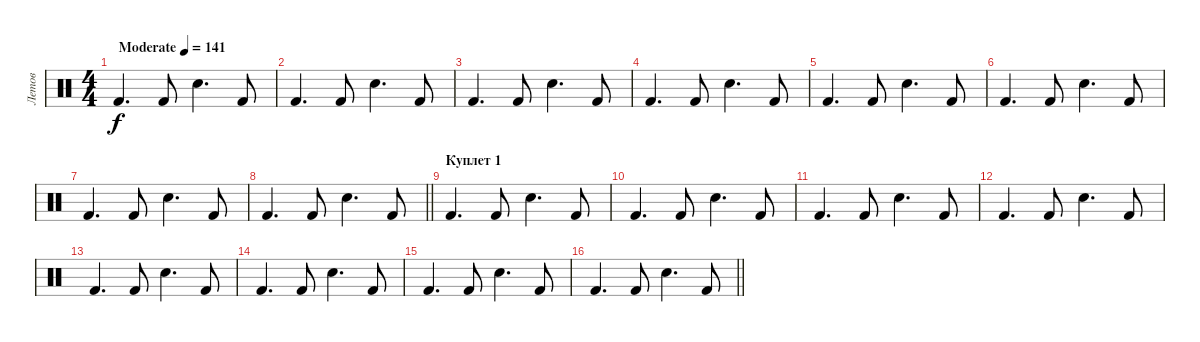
\track ("Летов" "Летов") {instrument percussion}
\staff {score}
\articulation defaults
\ts (4 4)
\tempo (141 "Moderate")
\clef neutral
\ks c "Kick (hit) 2".4{d dy f} "Kick (hit) 2".8 "Electric Snare (hit)".4{d} "Kick (hit) 2".8
|
"Kick (hit) 2".4{d} "Kick (hit) 2".8 "Electric Snare (hit)".4{d} "Kick (hit) 2".8 |
"Kick (hit) 2".4{d} "Kick (hit) 2".8 "Electric Snare (hit)".4{d} "Kick (hit) 2".8 |
"Kick (hit) 2".4{d} "Kick (hit) 2".8 "Electric Snare (hit)".4{d} "Kick (hit) 2".8 |
"Kick (hit) 2".4{d} "Kick (hit) 2".8 "Electric Snare (hit)".4{d} "Kick (hit) 2".8 |
"Kick (hit) 2".4{d} "Kick (hit) 2".8 "Electric Snare (hit)".4{d} "Kick (hit) 2".8 |
"Kick (hit) 2".4{d} "Kick (hit) 2".8 "Electric Snare (hit)".4{d} "Kick (hit) 2".8 |
\barLineRight lightlight "Kick (hit) 2".4{d} "Kick (hit) 2".8 "Electric Snare (hit)".4{d} "Kick (hit) 2".8
|
\section ("" "Куплет 1")
"Kick (hit) 2".4{d} "Kick (hit) 2".8 "Electric Snare (hit)".4{d} "Kick (hit) 2".8 |
"Kick (hit) 2".4{d} "Kick (hit) 2".8 "Electric Snare (hit)".4{d} "Kick (hit) 2".8 |
"Kick (hit) 2".4{d} "Kick (hit) 2".8 "Electric Snare (hit)".4{d} "Kick (hit) 2".8 |
"Kick (hit) 2".4{d} "Kick (hit) 2".8 "Electric Snare (hit)".4{d} "Kick (hit) 2".8 |
"Kick (hit) 2".4{d} "Kick (hit) 2".8 "Electric Snare (hit)".4{d} "Kick (hit) 2".8 |
"Kick (hit) 2".4{d} "Kick (hit) 2".8 "Electric Snare (hit)".4{d} "Kick (hit) 2".8 |
"Kick (hit) 2".4{d} "Kick (hit) 2".8 "Electric Snare (hit)".4{d} "Kick (hit) 2".8 |
\barLineRight lightlight "Kick (hit) 2".4{d} "Kick (hit) 2".8 "Electric Snare (hit)".4{d} "Kick (hit) 2".8
